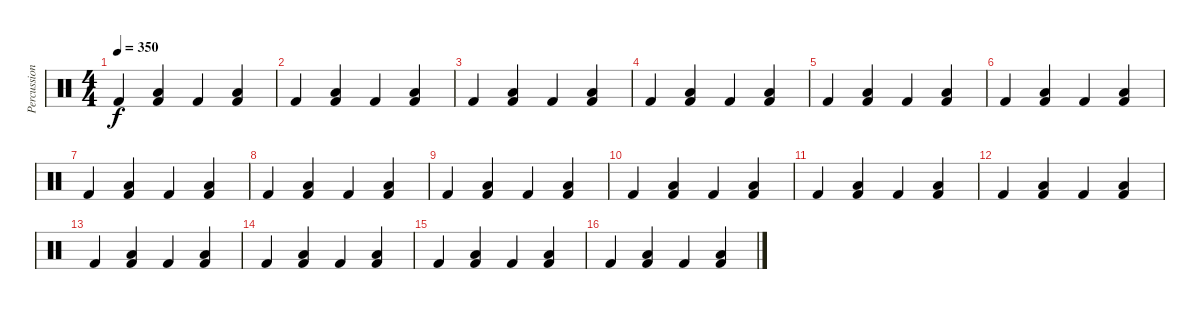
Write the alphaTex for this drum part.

\track ("Percussion" "Percussion") {instrument percussion}
\staff {score}
\articulation defaults
\ts (4 4)
\tempo 350
\clef neutral
\ks c "Kick (hit) 2".4{dy f}
("Low Tom (hit)" "Kick (hit) 2").4 "Kick (hit) 2".4 ("Low Tom (hit)" "Kick (hit) 2").4 |
"Kick (hit) 2".4 ("Low Tom (hit)" "Kick (hit) 2").4 "Kick (hit) 2".4 ("Low Tom (hit)" "Kick (hit) 2").4 |
"Kick (hit) 2".4 ("Low Tom (hit)" "Kick (hit) 2").4 "Kick (hit) 2".4 ("Low Tom (hit)" "Kick (hit) 2").4 |
"Kick (hit) 2".4 ("Low Tom (hit)" "Kick (hit) 2").4 "Kick (hit) 2".4 ("Low Tom (hit)" "Kick (hit) 2").4 |
"Kick (hit) 2".4 ("Low Tom (hit)" "Kick (hit) 2").4 "Kick (hit) 2".4 ("Low Tom (hit)" "Kick (hit) 2").4 |
"Kick (hit) 2".4 ("Low Tom (hit)" "Kick (hit) 2").4 "Kick (hit) 2".4 ("Low Tom (hit)" "Kick (hit) 2").4 |
"Kick (hit) 2".4 ("Low Tom (hit)" "Kick (hit) 2").4 "Kick (hit) 2".4 ("Low Tom (hit)" "Kick (hit) 2").4 |
"Kick (hit) 2".4 ("Low Tom (hit)" "Kick (hit) 2").4 "Kick (hit) 2".4 ("Low Tom (hit)" "Kick (hit) 2").4 |
"Kick (hit) 2".4 ("Low Tom (hit)" "Kick (hit) 2").4 "Kick (hit) 2".4 ("Low Tom (hit)" "Kick (hit) 2").4 |
"Kick (hit) 2".4 ("Low Tom (hit)" "Kick (hit) 2").4 "Kick (hit) 2".4 ("Low Tom (hit)" "Kick (hit) 2").4 |
"Kick (hit) 2".4 ("Low Tom (hit)" "Kick (hit) 2").4 "Kick (hit) 2".4 ("Low Tom (hit)" "Kick (hit) 2").4 |
"Kick (hit) 2".4 ("Low Tom (hit)" "Kick (hit) 2").4 "Kick (hit) 2".4 ("Low Tom (hit)" "Kick (hit) 2").4 |
"Kick (hit) 2".4 ("Low Tom (hit)" "Kick (hit) 2").4 "Kick (hit) 2".4 ("Low Tom (hit)" "Kick (hit) 2").4 |
"Kick (hit) 2".4 ("Low Tom (hit)" "Kick (hit) 2").4 "Kick (hit) 2".4 ("Low Tom (hit)" "Kick (hit) 2").4 |
"Kick (hit) 2".4 ("Low Tom (hit)" "Kick (hit) 2").4 "Kick (hit) 2".4 ("Low Tom (hit)" "Kick (hit) 2").4 |
"Kick (hit) 2".4 ("Low Tom (hit)" "Kick (hit) 2").4 "Kick (hit) 2".4 ("Low Tom (hit)" "Kick (hit) 2").4
